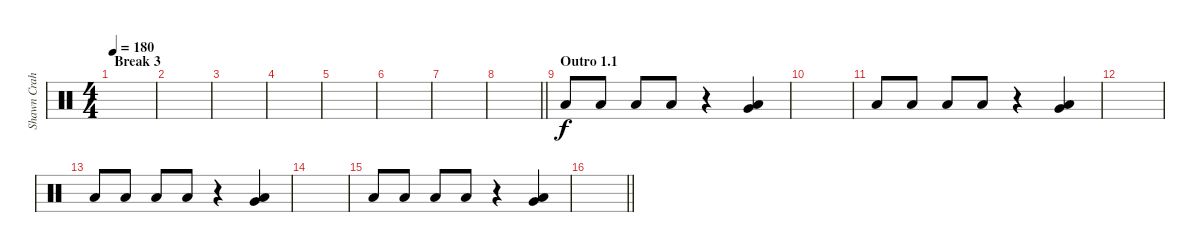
\track ("Shawn Crahan" "Shawn Crah") {instrument percussion}
\staff {score}
\articulation defaults
\ts (4 4)
\section ("" "Break 3")
\tempo 180
\clef neutral
\ks c
|
|
|
|
|
|
|
\barLineRight lightlight
|
\section ("" "Outro 1.1")
"Low Floor Tom (hit)".8 "Low Floor Tom (hit)".8 "Low Floor Tom (hit)".8 "Low Floor Tom (hit)".8 r.4 ("Very Low Tom (hit)" "Low Floor Tom (hit)").4 |
|
"Low Floor Tom (hit)".8 "Low Floor Tom (hit)".8 "Low Floor Tom (hit)".8 "Low Floor Tom (hit)".8 r.4 ("Very Low Tom (hit)" "Low Floor Tom (hit)").4 |
|
"Low Floor Tom (hit)".8 "Low Floor Tom (hit)".8 "Low Floor Tom (hit)".8 "Low Floor Tom (hit)".8 r.4 ("Very Low Tom (hit)" "Low Floor Tom (hit)").4 |
|
"Low Floor Tom (hit)".8 "Low Floor Tom (hit)".8 "Low Floor Tom (hit)".8 "Low Floor Tom (hit)".8 r.4 ("Very Low Tom (hit)" "Low Floor Tom (hit)").4 |
\barLineRight lightlight
